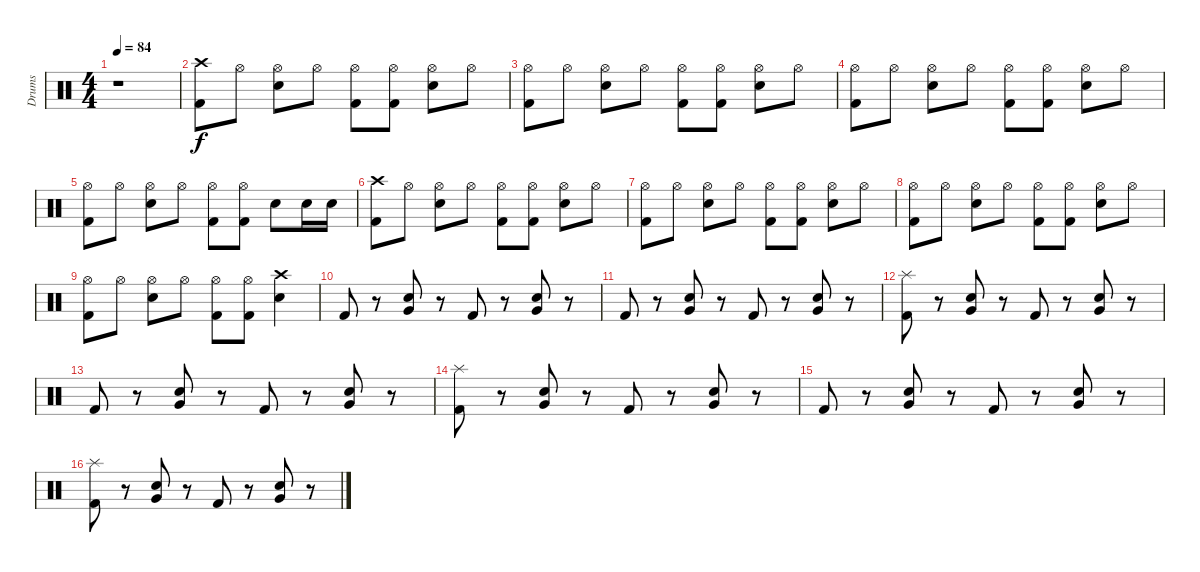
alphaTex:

\track ("Drums" "Drums") {instrument percussion}
\staff {score}
\articulation defaults
\ts (4 4)
\tempo 84
\clef neutral
\ks c
r.1{dy f} |
("Crash high (hit)" "Kick (hit) 2").8 "Hi-Hat (open)".8 ("Hi-Hat (open)" "Snare (hit) 2").8 "Hi-Hat (open)".8 ("Hi-Hat (open)" "Kick (hit) 2").8 ("Hi-Hat (open)" "Kick (hit) 2").8 ("Hi-Hat (open)" "Snare (hit) 2").8 "Hi-Hat (open)".8 |
("Hi-Hat (open)" "Kick (hit) 2").8 "Hi-Hat (open)".8 ("Hi-Hat (open)" "Snare (hit) 2").8 "Hi-Hat (open)".8 ("Hi-Hat (open)" "Kick (hit) 2").8 ("Hi-Hat (open)" "Kick (hit) 2").8 ("Hi-Hat (open)" "Snare (hit) 2").8 "Hi-Hat (open)".8 |
("Hi-Hat (open)" "Kick (hit) 2").8 "Hi-Hat (open)".8 ("Hi-Hat (open)" "Snare (hit) 2").8 "Hi-Hat (open)".8 ("Hi-Hat (open)" "Kick (hit) 2").8 ("Hi-Hat (open)" "Kick (hit) 2").8 ("Hi-Hat (open)" "Snare (hit) 2").8 "Hi-Hat (open)".8 |
("Hi-Hat (open)" "Kick (hit) 2").8 "Hi-Hat (open)".8 ("Hi-Hat (open)" "Snare (hit) 2").8 "Hi-Hat (open)".8 ("Hi-Hat (open)" "Kick (hit) 2").8 ("Hi-Hat (open)" "Kick (hit) 2").8 "Snare (hit) 2".8 "Snare (hit) 2".16 "Snare (hit) 2".16 |
("Crash high (hit)" "Kick (hit) 2").8 "Hi-Hat (open)".8 ("Hi-Hat (open)" "Snare (hit) 2").8 "Hi-Hat (open)".8 ("Hi-Hat (open)" "Kick (hit) 2").8 ("Hi-Hat (open)" "Kick (hit) 2").8 ("Hi-Hat (open)" "Snare (hit) 2").8 "Hi-Hat (open)".8 |
("Hi-Hat (open)" "Kick (hit) 2").8 "Hi-Hat (open)".8 ("Hi-Hat (open)" "Snare (hit) 2").8 "Hi-Hat (open)".8 ("Hi-Hat (open)" "Kick (hit) 2").8 ("Hi-Hat (open)" "Kick (hit) 2").8 ("Hi-Hat (open)" "Snare (hit) 2").8 "Hi-Hat (open)".8 |
("Hi-Hat (open)" "Kick (hit) 2").8 "Hi-Hat (open)".8 ("Hi-Hat (open)" "Snare (hit) 2").8 "Hi-Hat (open)".8 ("Hi-Hat (open)" "Kick (hit) 2").8 ("Hi-Hat (open)" "Kick (hit) 2").8 ("Hi-Hat (open)" "Snare (hit) 2").8 "Hi-Hat (open)".8 |
("Hi-Hat (open)" "Kick (hit) 2").8 "Hi-Hat (open)".8 ("Hi-Hat (open)" "Snare (hit) 2").8 "Hi-Hat (open)".8 ("Hi-Hat (open)" "Kick (hit) 2").8 ("Hi-Hat (open)" "Kick (hit) 2").8 ("Crash high (hit)" "Snare (hit) 2").4 |
"Kick (hit) 2".8 r.8 ("Very Low Tom (hit)" "Snare (hit) 2").8 r.8 "Kick (hit) 2".8 r.8 ("Very Low Tom (hit)" "Snare (hit) 2").8 r.8 |
"Kick (hit) 2".8 r.8 ("Very Low Tom (hit)" "Snare (hit) 2").8 r.8 "Kick (hit) 2".8 r.8 ("Very Low Tom (hit)" "Snare (hit) 2").8 r.8 |
("Splash (hit)" "Kick (hit) 2").8 r.8 ("Very Low Tom (hit)" "Snare (hit) 2").8 r.8 "Kick (hit) 2".8 r.8 ("Very Low Tom (hit)" "Snare (hit) 2").8 r.8 |
"Kick (hit) 2".8 r.8 ("Very Low Tom (hit)" "Snare (hit) 2").8 r.8 "Kick (hit) 2".8 r.8 ("Very Low Tom (hit)" "Snare (hit) 2").8 r.8 |
("Splash (hit)" "Kick (hit) 2").8 r.8 ("Very Low Tom (hit)" "Snare (hit) 2").8 r.8 "Kick (hit) 2".8 r.8 ("Very Low Tom (hit)" "Snare (hit) 2").8 r.8 |
"Kick (hit) 2".8 r.8 ("Very Low Tom (hit)" "Snare (hit) 2").8 r.8 "Kick (hit) 2".8 r.8 ("Very Low Tom (hit)" "Snare (hit) 2").8 r.8 |
("Splash (hit)" "Kick (hit) 2").8 r.8 ("Very Low Tom (hit)" "Snare (hit) 2").8 r.8 "Kick (hit) 2".8 r.8 ("Very Low Tom (hit)" "Snare (hit) 2").8 r.8
